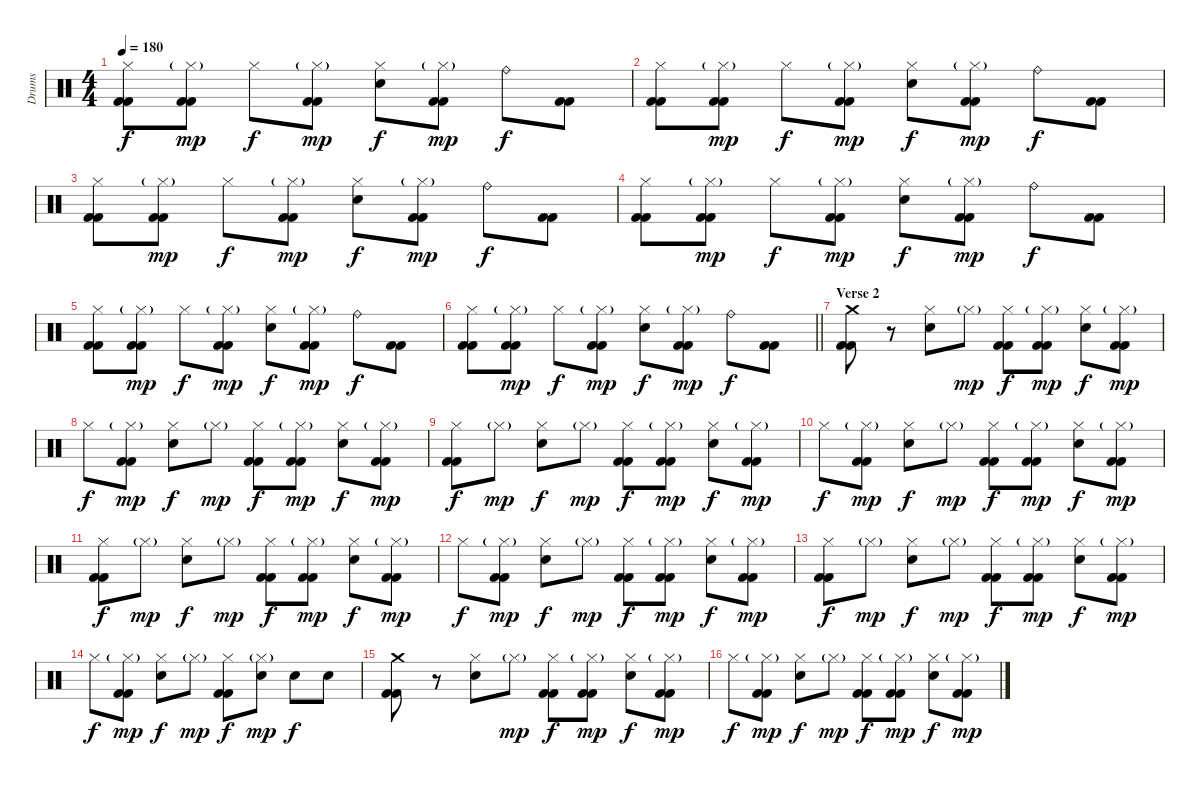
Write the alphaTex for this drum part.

\track ("Drums" "Drums") {instrument percussion}
\staff {score}
\articulation defaults
\ts (4 4)
\tempo 180
\clef neutral
\ks c
("Hi-Hat (closed)" "Kick (hit) 2" "Kick (hit) 2").8{dy f} ("Hi-Hat (closed)"{g} "Kick (hit) 2" "Kick (hit) 2").8{dy mp} "Hi-Hat (closed)".8{dy f} ("Hi-Hat (closed)"{g} "Kick (hit) 2" "Kick (hit) 2").8{dy mp} ("Hi-Hat (closed)" "Snare (hit) 2").8{dy f} ("Hi-Hat (closed)"{g} "Kick (hit) 2" "Kick (hit) 2").8{dy mp} "Ride (bell)".8{dy f} ("Kick (hit) 2" "Kick (hit) 2").8 |
("Hi-Hat (closed)" "Kick (hit) 2" "Kick (hit) 2").8 ("Hi-Hat (closed)"{g} "Kick (hit) 2" "Kick (hit) 2").8{dy mp} "Hi-Hat (closed)".8{dy f} ("Hi-Hat (closed)"{g} "Kick (hit) 2" "Kick (hit) 2").8{dy mp} ("Hi-Hat (closed)" "Snare (hit) 2").8{dy f} ("Hi-Hat (closed)"{g} "Kick (hit) 2" "Kick (hit) 2").8{dy mp} "Ride (bell)".8{dy f} ("Kick (hit) 2" "Kick (hit) 2").8 |
("Hi-Hat (closed)" "Kick (hit) 2" "Kick (hit) 2").8 ("Hi-Hat (closed)"{g} "Kick (hit) 2" "Kick (hit) 2").8{dy mp} "Hi-Hat (closed)".8{dy f} ("Hi-Hat (closed)"{g} "Kick (hit) 2" "Kick (hit) 2").8{dy mp} ("Hi-Hat (closed)" "Snare (hit) 2").8{dy f} ("Hi-Hat (closed)"{g} "Kick (hit) 2" "Kick (hit) 2").8{dy mp} "Ride (bell)".8{dy f} ("Kick (hit) 2" "Kick (hit) 2").8 |
("Hi-Hat (closed)" "Kick (hit) 2" "Kick (hit) 2").8 ("Hi-Hat (closed)"{g} "Kick (hit) 2" "Kick (hit) 2").8{dy mp} "Hi-Hat (closed)".8{dy f} ("Hi-Hat (closed)"{g} "Kick (hit) 2" "Kick (hit) 2").8{dy mp} ("Hi-Hat (closed)" "Snare (hit) 2").8{dy f} ("Hi-Hat (closed)"{g} "Kick (hit) 2" "Kick (hit) 2").8{dy mp} "Ride (bell)".8{dy f} ("Kick (hit) 2" "Kick (hit) 2").8 |
("Hi-Hat (closed)" "Kick (hit) 2" "Kick (hit) 2").8 ("Hi-Hat (closed)"{g} "Kick (hit) 2" "Kick (hit) 2").8{dy mp} "Hi-Hat (closed)".8{dy f} ("Hi-Hat (closed)"{g} "Kick (hit) 2" "Kick (hit) 2").8{dy mp} ("Hi-Hat (closed)" "Snare (hit) 2").8{dy f} ("Hi-Hat (closed)"{g} "Kick (hit) 2" "Kick (hit) 2").8{dy mp} "Ride (bell)".8{dy f} ("Kick (hit) 2" "Kick (hit) 2").8 |
\barLineRight lightlight
("Hi-Hat (closed)" "Kick (hit) 2" "Kick (hit) 2").8 ("Hi-Hat (closed)"{g} "Kick (hit) 2" "Kick (hit) 2").8{dy mp} "Hi-Hat (closed)".8{dy f} ("Hi-Hat (closed)"{g} "Kick (hit) 2" "Kick (hit) 2").8{dy mp} ("Hi-Hat (closed)" "Snare (hit) 2").8{dy f} ("Hi-Hat (closed)"{g} "Kick (hit) 2" "Kick (hit) 2").8{dy mp} "Ride (bell)".8{dy f} ("Kick (hit) 2" "Kick (hit) 2").8 |
\section ("" "Verse 2")
("Crash medium (hit)" "Kick (hit) 2" "Kick (hit) 2").8 r.8 ("Hi-Hat (closed)" "Snare (hit) 2").8 "Hi-Hat (closed)"{g}.8{dy mp} ("Hi-Hat (closed)" "Kick (hit) 2" "Kick (hit) 2").8{dy f} ("Hi-Hat (closed)"{g} "Kick (hit) 2" "Kick (hit) 2").8{dy mp} ("Hi-Hat (closed)" "Snare (hit) 2").8{dy f} ("Hi-Hat (closed)"{g} "Kick (hit) 2" "Kick (hit) 2").8{dy mp} |
"Hi-Hat (closed)".8{dy f} ("Hi-Hat (closed)"{g} "Kick (hit) 2" "Kick (hit) 2").8{dy mp} ("Hi-Hat (closed)" "Snare (hit) 2").8{dy f} "Hi-Hat (closed)"{g}.8{dy mp} ("Hi-Hat (closed)" "Kick (hit) 2" "Kick (hit) 2").8{dy f} ("Hi-Hat (closed)"{g} "Kick (hit) 2" "Kick (hit) 2").8{dy mp} ("Hi-Hat (closed)" "Snare (hit) 2").8{dy f} ("Hi-Hat (closed)"{g} "Kick (hit) 2" "Kick (hit) 2").8{dy mp} |
("Hi-Hat (closed)" "Kick (hit) 2" "Kick (hit) 2").8{dy f} "Hi-Hat (closed)"{g}.8{dy mp} ("Hi-Hat (closed)" "Snare (hit) 2").8{dy f} "Hi-Hat (closed)"{g}.8{dy mp} ("Hi-Hat (closed)" "Kick (hit) 2" "Kick (hit) 2").8{dy f} ("Hi-Hat (closed)"{g} "Kick (hit) 2" "Kick (hit) 2").8{dy mp} ("Hi-Hat (closed)" "Snare (hit) 2").8{dy f} ("Hi-Hat (closed)"{g} "Kick (hit) 2" "Kick (hit) 2").8{dy mp} |
"Hi-Hat (closed)".8{dy f} ("Hi-Hat (closed)"{g} "Kick (hit) 2" "Kick (hit) 2").8{dy mp} ("Hi-Hat (closed)" "Snare (hit) 2").8{dy f} "Hi-Hat (closed)"{g}.8{dy mp} ("Hi-Hat (closed)" "Kick (hit) 2" "Kick (hit) 2").8{dy f} ("Hi-Hat (closed)"{g} "Kick (hit) 2" "Kick (hit) 2").8{dy mp} ("Hi-Hat (closed)" "Snare (hit) 2").8{dy f} ("Hi-Hat (closed)"{g} "Kick (hit) 2" "Kick (hit) 2").8{dy mp} |
("Hi-Hat (closed)" "Kick (hit) 2" "Kick (hit) 2").8{dy f} "Hi-Hat (closed)"{g}.8{dy mp} ("Hi-Hat (closed)" "Snare (hit) 2").8{dy f} "Hi-Hat (closed)"{g}.8{dy mp} ("Hi-Hat (closed)" "Kick (hit) 2" "Kick (hit) 2").8{dy f} ("Hi-Hat (closed)"{g} "Kick (hit) 2" "Kick (hit) 2").8{dy mp} ("Hi-Hat (closed)" "Snare (hit) 2").8{dy f} ("Hi-Hat (closed)"{g} "Kick (hit) 2" "Kick (hit) 2").8{dy mp} |
"Hi-Hat (closed)".8{dy f} ("Hi-Hat (closed)"{g} "Kick (hit) 2" "Kick (hit) 2").8{dy mp} ("Hi-Hat (closed)" "Snare (hit) 2").8{dy f} "Hi-Hat (closed)"{g}.8{dy mp} ("Hi-Hat (closed)" "Kick (hit) 2" "Kick (hit) 2").8{dy f} ("Hi-Hat (closed)"{g} "Kick (hit) 2" "Kick (hit) 2").8{dy mp} ("Hi-Hat (closed)" "Snare (hit) 2").8{dy f} ("Hi-Hat (closed)"{g} "Kick (hit) 2" "Kick (hit) 2").8{dy mp} |
("Hi-Hat (closed)" "Kick (hit) 2" "Kick (hit) 2").8{dy f} "Hi-Hat (closed)"{g}.8{dy mp} ("Hi-Hat (closed)" "Snare (hit) 2").8{dy f} "Hi-Hat (closed)"{g}.8{dy mp} ("Hi-Hat (closed)" "Kick (hit) 2" "Kick (hit) 2").8{dy f} ("Hi-Hat (closed)"{g} "Kick (hit) 2" "Kick (hit) 2").8{dy mp} ("Hi-Hat (closed)" "Snare (hit) 2").8{dy f} ("Hi-Hat (closed)"{g} "Kick (hit) 2" "Kick (hit) 2").8{dy mp} |
"Hi-Hat (closed)".8{dy f} ("Hi-Hat (closed)"{g} "Kick (hit) 2" "Kick (hit) 2").8{dy mp} ("Hi-Hat (closed)" "Snare (hit) 2").8{dy f} "Hi-Hat (closed)"{g}.8{dy mp} ("Hi-Hat (closed)" "Kick (hit) 2" "Kick (hit) 2").8{dy f} ("Hi-Hat (closed)"{g} "Snare (hit) 2").8{dy mp} "Snare (hit) 2".8{dy f} "Snare (hit) 2".8 |
("Crash medium (hit)" "Kick (hit) 2" "Kick (hit) 2").8 r.8 ("Hi-Hat (closed)" "Snare (hit) 2").8 "Hi-Hat (closed)"{g}.8{dy mp} ("Hi-Hat (closed)" "Kick (hit) 2" "Kick (hit) 2").8{dy f} ("Hi-Hat (closed)"{g} "Kick (hit) 2" "Kick (hit) 2").8{dy mp} ("Hi-Hat (closed)" "Snare (hit) 2").8{dy f} ("Hi-Hat (closed)"{g} "Kick (hit) 2" "Kick (hit) 2").8{dy mp} |
"Hi-Hat (closed)".8{dy f} ("Hi-Hat (closed)"{g} "Kick (hit) 2" "Kick (hit) 2").8{dy mp} ("Hi-Hat (closed)" "Snare (hit) 2").8{dy f} "Hi-Hat (closed)"{g}.8{dy mp} ("Hi-Hat (closed)" "Kick (hit) 2" "Kick (hit) 2").8{dy f} ("Hi-Hat (closed)"{g} "Kick (hit) 2" "Kick (hit) 2").8{dy mp} ("Hi-Hat (closed)" "Snare (hit) 2").8{dy f} ("Hi-Hat (closed)"{g} "Kick (hit) 2" "Kick (hit) 2").8{dy mp}
